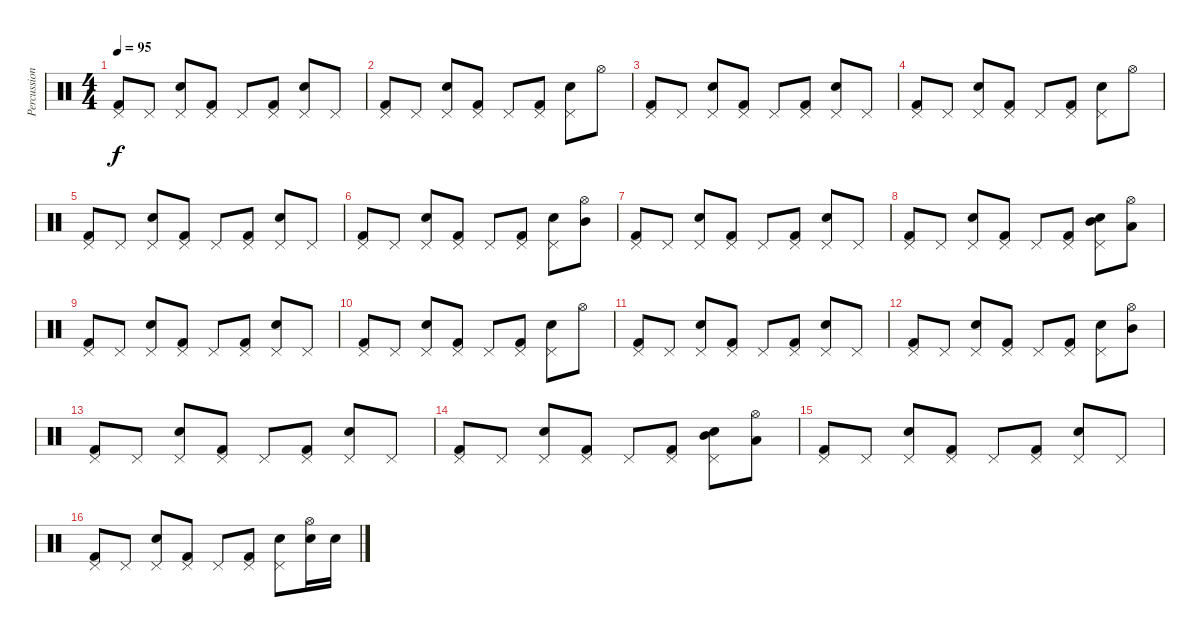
\track ("Percussion" "Percussion") {instrument percussion}
\staff {score}
\articulation defaults
\ts (4 4)
\tempo 95
\clef neutral
\ks c
("Pedal Hi-Hat (hit)" "Kick (hit) 2").8{dy f} "Pedal Hi-Hat (hit)".8 ("Pedal Hi-Hat (hit)" "Snare (hit) 2").8 ("Pedal Hi-Hat (hit)" "Kick (hit) 2").8 "Pedal Hi-Hat (hit)".8 ("Pedal Hi-Hat (hit)" "Kick (hit) 2").8 ("Pedal Hi-Hat (hit)" "Snare (hit) 2").8 "Pedal Hi-Hat (hit)".8 |
("Pedal Hi-Hat (hit)" "Kick (hit) 2").8 "Pedal Hi-Hat (hit)".8 ("Pedal Hi-Hat (hit)" "Snare (hit) 2").8 ("Pedal Hi-Hat (hit)" "Kick (hit) 2").8 "Pedal Hi-Hat (hit)".8 ("Pedal Hi-Hat (hit)" "Kick (hit) 2").8 ("Pedal Hi-Hat (hit)" "Snare (hit) 2").8 "Hi-Hat (open)".8 |
("Pedal Hi-Hat (hit)" "Kick (hit) 2").8 "Pedal Hi-Hat (hit)".8 ("Pedal Hi-Hat (hit)" "Snare (hit) 2").8 ("Pedal Hi-Hat (hit)" "Kick (hit) 2").8 "Pedal Hi-Hat (hit)".8 ("Pedal Hi-Hat (hit)" "Kick (hit) 2").8 ("Pedal Hi-Hat (hit)" "Snare (hit) 2").8 "Pedal Hi-Hat (hit)".8 |
("Pedal Hi-Hat (hit)" "Kick (hit) 2").8 "Pedal Hi-Hat (hit)".8 ("Pedal Hi-Hat (hit)" "Snare (hit) 2").8 ("Pedal Hi-Hat (hit)" "Kick (hit) 2").8 "Pedal Hi-Hat (hit)".8 ("Pedal Hi-Hat (hit)" "Kick (hit) 2").8 ("Pedal Hi-Hat (hit)" "Snare (hit) 2").8 "Hi-Hat (open)".8 |
("Pedal Hi-Hat (hit)" "Kick (hit) 2").8 "Pedal Hi-Hat (hit)".8 ("Pedal Hi-Hat (hit)" "Snare (hit) 2").8 ("Pedal Hi-Hat (hit)" "Kick (hit) 2").8 "Pedal Hi-Hat (hit)".8 ("Pedal Hi-Hat (hit)" "Kick (hit) 2").8 ("Pedal Hi-Hat (hit)" "Snare (hit) 2").8 "Pedal Hi-Hat (hit)".8 |
("Pedal Hi-Hat (hit)" "Kick (hit) 2").8 "Pedal Hi-Hat (hit)".8 ("Pedal Hi-Hat (hit)" "Snare (hit) 2").8 ("Pedal Hi-Hat (hit)" "Kick (hit) 2").8 "Pedal Hi-Hat (hit)".8 ("Pedal Hi-Hat (hit)" "Kick (hit) 2").8 ("Pedal Hi-Hat (hit)" "Snare (hit) 2").8 ("Mid Tom (hit)" "Hi-Hat (open)").8 |
("Pedal Hi-Hat (hit)" "Kick (hit) 2").8 "Pedal Hi-Hat (hit)".8 ("Pedal Hi-Hat (hit)" "Snare (hit) 2").8 ("Pedal Hi-Hat (hit)" "Kick (hit) 2").8 "Pedal Hi-Hat (hit)".8 ("Pedal Hi-Hat (hit)" "Kick (hit) 2").8 ("Pedal Hi-Hat (hit)" "Snare (hit) 2").8 "Pedal Hi-Hat (hit)".8 |
("Pedal Hi-Hat (hit)" "Kick (hit) 2").8 "Pedal Hi-Hat (hit)".8 ("Pedal Hi-Hat (hit)" "Snare (hit) 2").8 ("Pedal Hi-Hat (hit)" "Kick (hit) 2").8 "Pedal Hi-Hat (hit)".8 ("Pedal Hi-Hat (hit)" "Kick (hit) 2").8 ("Mid Tom (hit)" "Pedal Hi-Hat (hit)" "Snare (hit) 2").8 ("Low Tom (hit)" "Hi-Hat (open)").8 |
("Pedal Hi-Hat (hit)" "Kick (hit) 2").8 "Pedal Hi-Hat (hit)".8 ("Pedal Hi-Hat (hit)" "Snare (hit) 2").8 ("Pedal Hi-Hat (hit)" "Kick (hit) 2").8 "Pedal Hi-Hat (hit)".8 ("Pedal Hi-Hat (hit)" "Kick (hit) 2").8 ("Pedal Hi-Hat (hit)" "Snare (hit) 2").8 "Pedal Hi-Hat (hit)".8 |
("Pedal Hi-Hat (hit)" "Kick (hit) 2").8 "Pedal Hi-Hat (hit)".8 ("Pedal Hi-Hat (hit)" "Snare (hit) 2").8 ("Pedal Hi-Hat (hit)" "Kick (hit) 2").8 "Pedal Hi-Hat (hit)".8 ("Pedal Hi-Hat (hit)" "Kick (hit) 2").8 ("Pedal Hi-Hat (hit)" "Snare (hit) 2").8 "Hi-Hat (open)".8 |
("Pedal Hi-Hat (hit)" "Kick (hit) 2").8 "Pedal Hi-Hat (hit)".8 ("Pedal Hi-Hat (hit)" "Snare (hit) 2").8 ("Pedal Hi-Hat (hit)" "Kick (hit) 2").8 "Pedal Hi-Hat (hit)".8 ("Pedal Hi-Hat (hit)" "Kick (hit) 2").8 ("Pedal Hi-Hat (hit)" "Snare (hit) 2").8 "Pedal Hi-Hat (hit)".8 |
("Pedal Hi-Hat (hit)" "Kick (hit) 2").8 "Pedal Hi-Hat (hit)".8 ("Pedal Hi-Hat (hit)" "Snare (hit) 2").8 ("Pedal Hi-Hat (hit)" "Kick (hit) 2").8 "Pedal Hi-Hat (hit)".8 ("Pedal Hi-Hat (hit)" "Kick (hit) 2").8 ("Pedal Hi-Hat (hit)" "Snare (hit) 2").8 ("Mid Tom (hit)" "Hi-Hat (open)").8 |
("Pedal Hi-Hat (hit)" "Kick (hit) 2").8 "Pedal Hi-Hat (hit)".8 ("Pedal Hi-Hat (hit)" "Snare (hit) 2").8 ("Pedal Hi-Hat (hit)" "Kick (hit) 2").8 "Pedal Hi-Hat (hit)".8 ("Pedal Hi-Hat (hit)" "Kick (hit) 2").8 ("Pedal Hi-Hat (hit)" "Snare (hit) 2").8 "Pedal Hi-Hat (hit)".8 |
("Pedal Hi-Hat (hit)" "Kick (hit) 2").8 "Pedal Hi-Hat (hit)".8 ("Pedal Hi-Hat (hit)" "Snare (hit) 2").8 ("Pedal Hi-Hat (hit)" "Kick (hit) 2").8 "Pedal Hi-Hat (hit)".8 ("Pedal Hi-Hat (hit)" "Kick (hit) 2").8 ("Mid Tom (hit)" "Pedal Hi-Hat (hit)" "Snare (hit) 2").8 ("Low Tom (hit)" "Hi-Hat (open)").8 |
("Pedal Hi-Hat (hit)" "Kick (hit) 2").8 "Pedal Hi-Hat (hit)".8 ("Pedal Hi-Hat (hit)" "Snare (hit) 2").8 ("Pedal Hi-Hat (hit)" "Kick (hit) 2").8 "Pedal Hi-Hat (hit)".8 ("Pedal Hi-Hat (hit)" "Kick (hit) 2").8 ("Pedal Hi-Hat (hit)" "Snare (hit) 2").8 "Pedal Hi-Hat (hit)".8 |
("Pedal Hi-Hat (hit)" "Kick (hit) 2").8 "Pedal Hi-Hat (hit)".8 ("Pedal Hi-Hat (hit)" "Snare (hit) 2").8 ("Pedal Hi-Hat (hit)" "Kick (hit) 2").8 "Pedal Hi-Hat (hit)".8 ("Pedal Hi-Hat (hit)" "Kick (hit) 2").8 ("Pedal Hi-Hat (hit)" "Snare (hit) 2").8 ("Hi-Hat (open)" "Snare (hit) 2").16 "Snare (hit) 2".16
